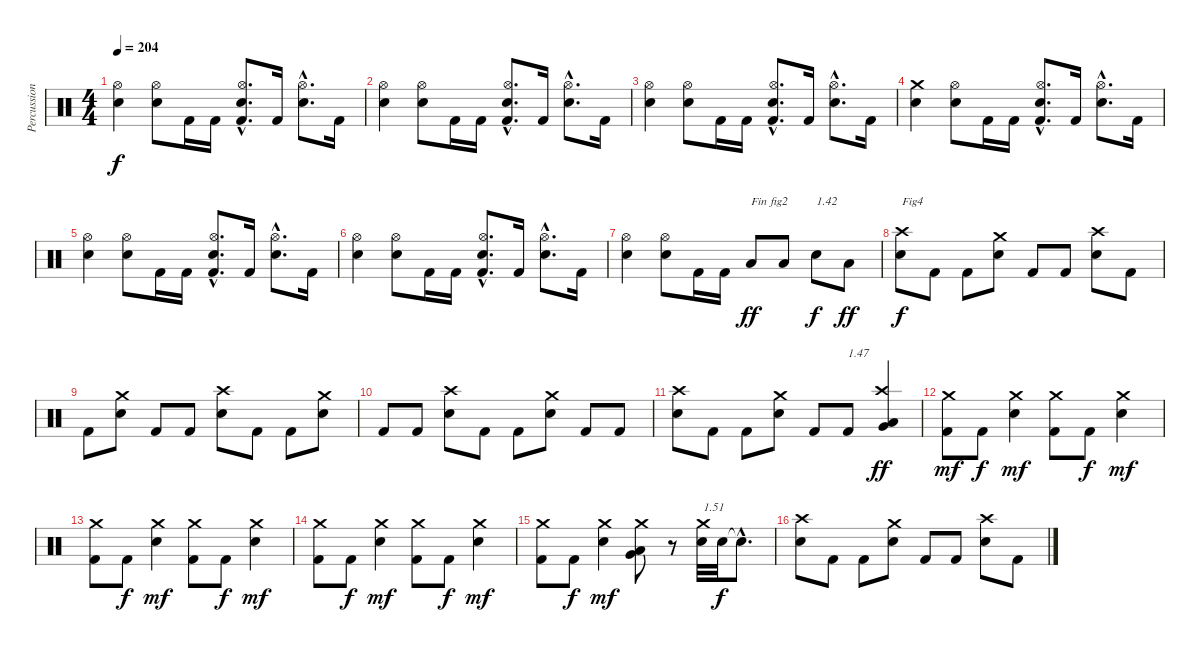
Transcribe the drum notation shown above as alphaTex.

\track ("Percussions" "Percussion") {instrument percussion}
\staff {score}
\articulation defaults
\ts (4 4)
\tempo 204
\clef neutral
\ks c
("Electric Snare (hit)" "Hi-Hat (open)").4{dy f} ("Electric Snare (hit)" "Hi-Hat (open)").8 "Kick (hit) 2".16 "Kick (hit) 2".16 ("Kick (hit) 2"{hac} "Electric Snare (hit)"{hac} "Hi-Hat (open)"{hac}).8{d} "Kick (hit) 2".16 ("Electric Snare (hit)"{hac} "Hi-Hat (open)"{hac}).8{d} "Kick (hit) 2".16 |
("Electric Snare (hit)" "Hi-Hat (open)").4 ("Electric Snare (hit)" "Hi-Hat (open)").8 "Kick (hit) 2".16 "Kick (hit) 2".16 ("Kick (hit) 2"{hac} "Electric Snare (hit)"{hac} "Hi-Hat (open)"{hac}).8{d} "Kick (hit) 2".16 ("Electric Snare (hit)"{hac} "Hi-Hat (open)"{hac}).8{d} "Kick (hit) 2".16 |
("Electric Snare (hit)" "Hi-Hat (open)").4 ("Electric Snare (hit)" "Hi-Hat (open)").8 "Kick (hit) 2".16 "Kick (hit) 2".16 ("Kick (hit) 2"{hac} "Electric Snare (hit)"{hac} "Hi-Hat (open)"{hac}).8{d} "Kick (hit) 2".16 ("Electric Snare (hit)"{hac} "Hi-Hat (open)"{hac}).8{d} "Kick (hit) 2".16 |
("Electric Snare (hit)" "Crash medium (hit)").4 ("Electric Snare (hit)" "Hi-Hat (open)").8 "Kick (hit) 2".16 "Kick (hit) 2".16 ("Kick (hit) 2"{hac} "Electric Snare (hit)"{hac} "Hi-Hat (open)"{hac}).8{d} "Kick (hit) 2".16 ("Electric Snare (hit)"{hac} "Hi-Hat (open)"{hac}).8{d} "Kick (hit) 2".16 |
("Electric Snare (hit)" "Hi-Hat (open)").4 ("Electric Snare (hit)" "Hi-Hat (open)").8 "Kick (hit) 2".16 "Kick (hit) 2".16 ("Kick (hit) 2"{hac} "Electric Snare (hit)"{hac} "Hi-Hat (open)"{hac}).8{d} "Kick (hit) 2".16 ("Electric Snare (hit)"{hac} "Hi-Hat (open)"{hac}).8{d} "Kick (hit) 2".16 |
("Electric Snare (hit)" "Hi-Hat (open)").4 ("Electric Snare (hit)" "Hi-Hat (open)").8 "Kick (hit) 2".16 "Kick (hit) 2".16 ("Kick (hit) 2"{hac} "Electric Snare (hit)"{hac} "Hi-Hat (open)"{hac}).8{d} "Kick (hit) 2".16 ("Electric Snare (hit)"{hac} "Hi-Hat (open)"{hac}).8{d} "Kick (hit) 2".16 |
("Electric Snare (hit)" "Hi-Hat (open)").4 ("Electric Snare (hit)" "Hi-Hat (open)").8 "Kick (hit) 2".16 "Kick (hit) 2".16 "Low Floor Tom (hit)".8{txt "Fin fig2" dy ff} "Low Floor Tom (hit)".8 "Electric Snare (hit)".8{txt "1.42" dy f} "Low Floor Tom (hit)".8{dy ff} |
("Electric Snare (hit)" "Crash high (hit)").8{txt "Fig4" dy f} "Kick (hit) 2".8 "Kick (hit) 2".8 ("Electric Snare (hit)" "Crash medium (hit)").8 "Kick (hit) 2".8 "Kick (hit) 2".8 ("Electric Snare (hit)" "Crash high (hit)").8 "Kick (hit) 2".8 |
"Kick (hit) 2".8 ("Electric Snare (hit)" "Crash medium (hit)").8 "Kick (hit) 2".8 "Kick (hit) 2".8 ("Electric Snare (hit)" "Crash high (hit)").8 "Kick (hit) 2".8 "Kick (hit) 2".8 ("Electric Snare (hit)" "Crash medium (hit)").8 |
"Kick (hit) 2".8 "Kick (hit) 2".8 ("Electric Snare (hit)" "Crash high (hit)").8 "Kick (hit) 2".8 "Kick (hit) 2".8 ("Electric Snare (hit)" "Crash medium (hit)").8 "Kick (hit) 2".8 "Kick (hit) 2".8 |
("Electric Snare (hit)" "Crash high (hit)").8 "Kick (hit) 2".8 "Kick (hit) 2".8 ("Electric Snare (hit)" "Crash medium (hit)").8 "Kick (hit) 2".8 "Kick (hit) 2".8{txt "1.47"} ("Very Low Tom (hit)" "Low Floor Tom (hit)" "Crash high (hit)").4{dy ff} |
("Kick (hit) 2" "Crash medium (hit)").8{dy mf} "Kick (hit) 2".8{dy f} ("Electric Snare (hit)" "Crash medium (hit)").4{dy mf} ("Kick (hit) 2" "Crash medium (hit)").8 "Kick (hit) 2".8{dy f} ("Electric Snare (hit)" "Crash medium (hit)").4{dy mf} |
("Kick (hit) 2" "Crash medium (hit)").8 "Kick (hit) 2".8{dy f} ("Electric Snare (hit)" "Crash medium (hit)").4{dy mf} ("Kick (hit) 2" "Crash medium (hit)").8 "Kick (hit) 2".8{dy f} ("Electric Snare (hit)" "Crash medium (hit)").4{dy mf} |
("Kick (hit) 2" "Crash medium (hit)").8 "Kick (hit) 2".8{dy f} ("Electric Snare (hit)" "Crash medium (hit)").4{dy mf} ("Kick (hit) 2" "Crash medium (hit)").8 "Kick (hit) 2".8{dy f} ("Electric Snare (hit)" "Crash medium (hit)").4{dy mf} |
("Kick (hit) 2" "Crash medium (hit)").8 "Kick (hit) 2".8{dy f} ("Electric Snare (hit)" "Crash medium (hit)").4{dy mf} ("Very Low Tom (hit)" "Low Floor Tom (hit)" "Crash medium (hit)").8 r.8 ("Electric Snare (hit)" "Crash medium (hit)").32{txt "1.51"} "Electric Snare (hit)".32{dy f} "Snare (hit)"{hac t}.8{d} |
("Electric Snare (hit)" "Crash high (hit)").8 "Kick (hit) 2".8 "Kick (hit) 2".8 ("Electric Snare (hit)" "Crash medium (hit)").8 "Kick (hit) 2".8 "Kick (hit) 2".8 ("Electric Snare (hit)" "Crash high (hit)").8 "Kick (hit) 2".8
